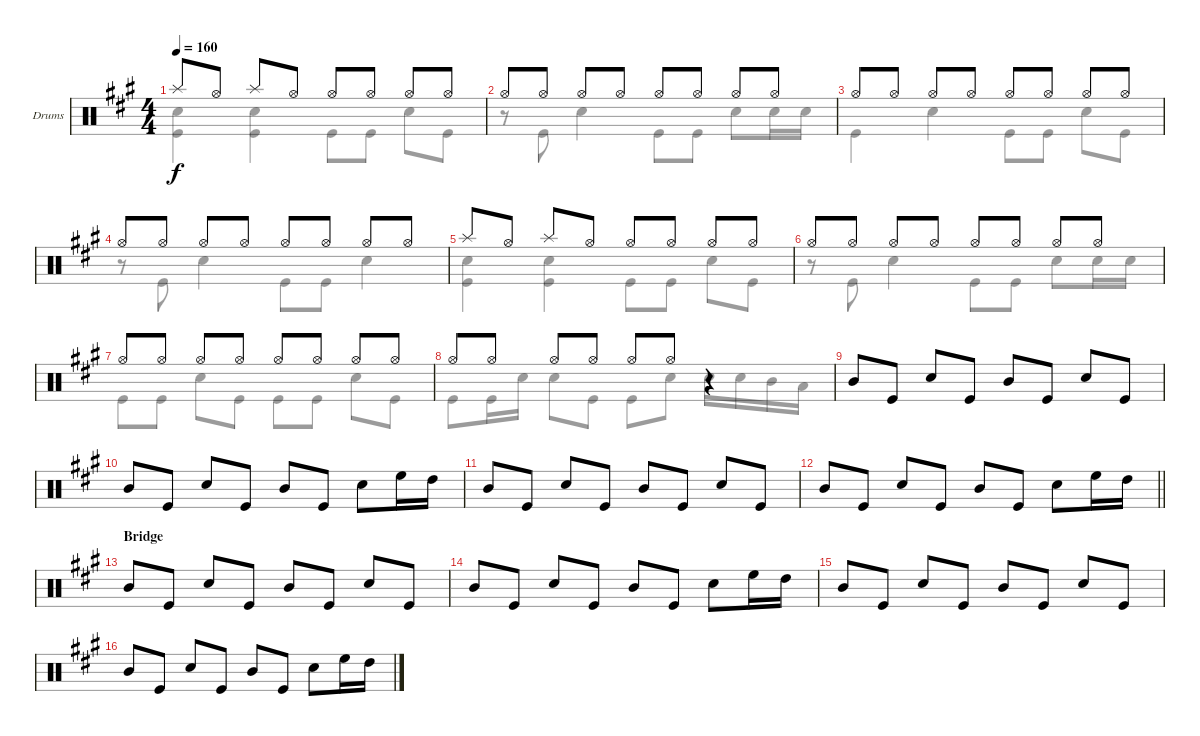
\bracketExtendMode groupsimilarinstruments
\firstSystemTrackNameOrientation horizontal
\otherSystemsTrackNameOrientation horizontal
\track ("Drumkit" "Drums") {instrument percussion}
\staff {score}
\articulation defaults
\voice
\ts (4 4)
\tempo 160
\clef neutral
\ks a "Splash (hit)".8{dy f} "Hi-Hat (open)".8 "Splash (hit)".8 "Hi-Hat (open)".8 "Hi-Hat (open)".8 "Hi-Hat (open)".8 "Hi-Hat (open)".8 "Hi-Hat (open)".8
|
"Hi-Hat (open)".8 "Hi-Hat (open)".8 "Hi-Hat (open)".8 "Hi-Hat (open)".8 "Hi-Hat (open)".8 "Hi-Hat (open)".8 "Hi-Hat (open)".8 "Hi-Hat (open)".8 |
"Hi-Hat (open)".8 "Hi-Hat (open)".8 "Hi-Hat (open)".8 "Hi-Hat (open)".8 "Hi-Hat (open)".8 "Hi-Hat (open)".8 "Hi-Hat (open)".8 "Hi-Hat (open)".8 |
"Hi-Hat (open)".8 "Hi-Hat (open)".8 "Hi-Hat (open)".8 "Hi-Hat (open)".8 "Hi-Hat (open)".8 "Hi-Hat (open)".8 "Hi-Hat (open)".8 "Hi-Hat (open)".8 |
"Splash (hit)".8 "Hi-Hat (open)".8 "Splash (hit)".8 "Hi-Hat (open)".8 "Hi-Hat (open)".8 "Hi-Hat (open)".8 "Hi-Hat (open)".8 "Hi-Hat (open)".8 |
"Hi-Hat (open)".8 "Hi-Hat (open)".8 "Hi-Hat (open)".8 "Hi-Hat (open)".8 "Hi-Hat (open)".8 "Hi-Hat (open)".8 "Hi-Hat (open)".8 "Hi-Hat (open)".8 |
"Hi-Hat (open)".8 "Hi-Hat (open)".8 "Hi-Hat (open)".8 "Hi-Hat (open)".8 "Hi-Hat (open)".8 "Hi-Hat (open)".8 "Hi-Hat (open)".8 "Hi-Hat (open)".8 |
"Hi-Hat (open)".8 "Hi-Hat (open)".8 "Hi-Hat (open)".8 "Hi-Hat (open)".8 "Hi-Hat (open)".8 "Hi-Hat (open)".8 r.4 |
"Mid Tom (hit)".8 "Kick (hit)".8 "Snare (hit) 2".8 "Kick (hit)".8 "Mid Tom (hit)".8 "Kick (hit)".8 "Snare (hit) 2".8 "Kick (hit)".8 |
"Mid Tom (hit)".8 "Kick (hit)".8 "Snare (hit) 2".8 "Kick (hit)".8 "Mid Tom (hit)".8 "Kick (hit)".8 "Snare (hit) 2".8 "High Floor Tom (hit)".16 "High Tom (hit)".16 |
"Mid Tom (hit)".8 "Kick (hit)".8 "Snare (hit) 2".8 "Kick (hit)".8 "Mid Tom (hit)".8 "Kick (hit)".8 "Snare (hit) 2".8 "Kick (hit)".8 |
\barLineRight lightlight "Mid Tom (hit)".8 "Kick (hit)".8 "Snare (hit) 2".8 "Kick (hit)".8 "Mid Tom (hit)".8 "Kick (hit)".8 "Snare (hit) 2".8 "High Floor Tom (hit)".16 "High Tom (hit)".16
|
\section ("" "Bridge")
"Mid Tom (hit)".8 "Kick (hit)".8 "Snare (hit) 2".8 "Kick (hit)".8 "Mid Tom (hit)".8 "Kick (hit)".8 "Snare (hit) 2".8 "Kick (hit)".8 |
"Mid Tom (hit)".8 "Kick (hit)".8 "Snare (hit) 2".8 "Kick (hit)".8 "Mid Tom (hit)".8 "Kick (hit)".8 "Snare (hit) 2".8 "High Floor Tom (hit)".16 "High Tom (hit)".16 |
"Mid Tom (hit)".8 "Kick (hit)".8 "Snare (hit) 2".8 "Kick (hit)".8 "Mid Tom (hit)".8 "Kick (hit)".8 "Snare (hit) 2".8 "Kick (hit)".8 |
"Mid Tom (hit)".8 "Kick (hit)".8 "Snare (hit) 2".8 "Kick (hit)".8 "Mid Tom (hit)".8 "Kick (hit)".8 "Snare (hit) 2".8 "High Floor Tom (hit)".16 "High Tom (hit)".16
\voice
\clef neutral
\ottava regular
\simile none
\ks a
("Snare (hit) 2" "Kick (hit)").4{dy f} ("Snare (hit) 2" "Kick (hit)").4 "Kick (hit)".8 "Kick (hit)".8 "Snare (hit) 2".8 "Kick (hit)".8 |
r.8 "Kick (hit)".8 "Snare (hit) 2".4 "Kick (hit)".8 "Kick (hit)".8 "Snare (hit) 2".8 "Snare (hit) 2".16 "Snare (hit) 2".16 |
"Kick (hit)".4 "Snare (hit) 2".4 "Kick (hit)".8 "Kick (hit)".8 "Snare (hit) 2".8 "Kick (hit)".8 |
r.8 "Kick (hit)".8 "Snare (hit) 2".4 "Kick (hit)".8 "Kick (hit)".8 "Snare (hit) 2".4 |
("Snare (hit) 2" "Kick (hit)").4 ("Snare (hit) 2" "Kick (hit)").4 "Kick (hit)".8 "Kick (hit)".8 "Snare (hit) 2".8 "Kick (hit)".8 |
r.8 "Kick (hit)".8 "Snare (hit) 2".4 "Kick (hit)".8 "Kick (hit)".8 "Snare (hit) 2".8 "Snare (hit) 2".16 "Snare (hit) 2".16 |
"Kick (hit)".8 "Kick (hit)".8 "Snare (hit) 2".8 "Kick (hit)".8 "Kick (hit)".8 "Kick (hit)".8 "Snare (hit) 2".8 "Kick (hit)".8 |
"Kick (hit)".8 "Kick (hit)".16 "Snare (hit) 2".16 "Snare (hit) 2".8 "Kick (hit)".8 "Kick (hit)".8 "Snare (hit) 2".8 "Snare (hit) 2".16 "Snare (hit) 2".16 "Mid Tom (hit)".16 "Low Tom (hit)".16 |
|
|
|
\barLineRight lightlight
|
|
|
|
